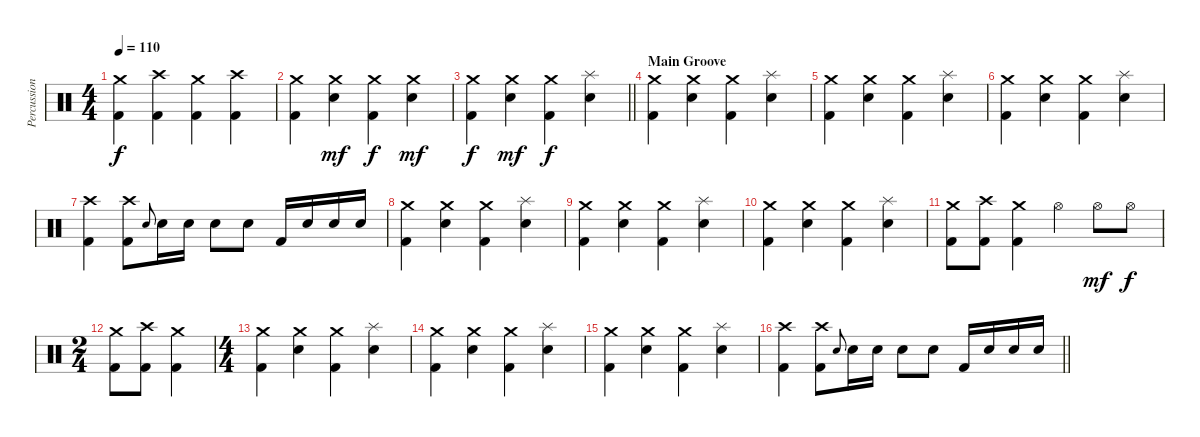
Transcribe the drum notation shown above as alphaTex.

\track ("Percussion" "Percussion") {instrument percussion}
\staff {score}
\articulation defaults
\ts (4 4)
\tempo 110
\clef neutral
\ks c
("Crash medium (hit)" "Kick (hit) 2").4{dy f} ("Crash high (hit)" "Kick (hit) 2").4 ("Crash medium (hit)" "Kick (hit) 2").4 ("Crash high (hit)" "Kick (hit) 2").4 |
("Crash medium (hit)" "Kick (hit) 2").4 ("Crash medium (hit)" "Electric Snare (hit)").4{dy mf} ("Crash medium (hit)" "Kick (hit) 2").4{dy f} ("Crash medium (hit)" "Electric Snare (hit)").4{dy mf} |
\barLineRight lightlight
("Crash medium (hit)" "Kick (hit) 2").4{dy f} ("Crash medium (hit)" "Electric Snare (hit)").4{dy mf} ("Crash medium (hit)" "Kick (hit) 2").4{dy f} ("Splash (hit)" "Electric Snare (hit)").4 |
\section ("" "Main Groove")
("Crash medium (hit)" "Kick (hit) 2").4 ("Crash medium (hit)" "Electric Snare (hit)").4 ("Crash medium (hit)" "Kick (hit) 2").4 ("Splash (hit)" "Electric Snare (hit)").4 |
("Crash medium (hit)" "Kick (hit) 2").4 ("Crash medium (hit)" "Electric Snare (hit)").4 ("Crash medium (hit)" "Kick (hit) 2").4 ("Splash (hit)" "Electric Snare (hit)").4 |
("Crash medium (hit)" "Kick (hit) 2").4 ("Crash medium (hit)" "Electric Snare (hit)").4 ("Crash medium (hit)" "Kick (hit) 2").4 ("Splash (hit)" "Electric Snare (hit)").4 |
("Crash high (hit)" "Kick (hit) 2").4 ("Crash high (hit)" "Kick (hit) 2").8 "Electric Snare (hit)".8{gr onbeat} "Electric Snare (hit)".16 "Electric Snare (hit)".16 "Electric Snare (hit)".8 "Electric Snare (hit)".8 "Kick (hit) 2".16 "Electric Snare (hit)".16 "Electric Snare (hit)".16 "Electric Snare (hit)".16 |
("Crash medium (hit)" "Kick (hit) 2").4 ("Crash medium (hit)" "Electric Snare (hit)").4 ("Crash medium (hit)" "Kick (hit) 2").4 ("Splash (hit)" "Electric Snare (hit)").4 |
("Crash medium (hit)" "Kick (hit) 2").4 ("Crash medium (hit)" "Electric Snare (hit)").4 ("Crash medium (hit)" "Kick (hit) 2").4 ("Splash (hit)" "Electric Snare (hit)").4 |
("Crash medium (hit)" "Kick (hit) 2").4 ("Crash medium (hit)" "Electric Snare (hit)").4 ("Crash medium (hit)" "Kick (hit) 2").4 ("Splash (hit)" "Electric Snare (hit)").4 |
("Crash medium (hit)" "Kick (hit) 2").8 ("Crash high (hit)" "Kick (hit) 2").8 ("Crash medium (hit)" "Kick (hit) 2").4 "Hi-Hat (open)".4 "Hi-Hat (open)".8{dy mf} "Hi-Hat (open)".8{dy f} |
\ts (2 4)
("Crash medium (hit)" "Kick (hit) 2").8 ("Crash high (hit)" "Kick (hit) 2").8 ("Crash medium (hit)" "Kick (hit) 2").4 |
\ts (4 4)
("Crash medium (hit)" "Kick (hit) 2").4 ("Crash medium (hit)" "Electric Snare (hit)").4 ("Crash medium (hit)" "Kick (hit) 2").4 ("Splash (hit)" "Electric Snare (hit)").4 |
("Crash medium (hit)" "Kick (hit) 2").4 ("Crash medium (hit)" "Electric Snare (hit)").4 ("Crash medium (hit)" "Kick (hit) 2").4 ("Splash (hit)" "Electric Snare (hit)").4 |
("Crash medium (hit)" "Kick (hit) 2").4 ("Crash medium (hit)" "Electric Snare (hit)").4 ("Crash medium (hit)" "Kick (hit) 2").4 ("Splash (hit)" "Electric Snare (hit)").4 |
\barLineRight lightlight
("Crash high (hit)" "Kick (hit) 2").4 ("Crash high (hit)" "Kick (hit) 2").8 "Electric Snare (hit)".8{gr onbeat} "Electric Snare (hit)".16 "Electric Snare (hit)".16 "Electric Snare (hit)".8 "Electric Snare (hit)".8 "Kick (hit) 2".16 "Electric Snare (hit)".16 "Electric Snare (hit)".16 "Electric Snare (hit)".16
